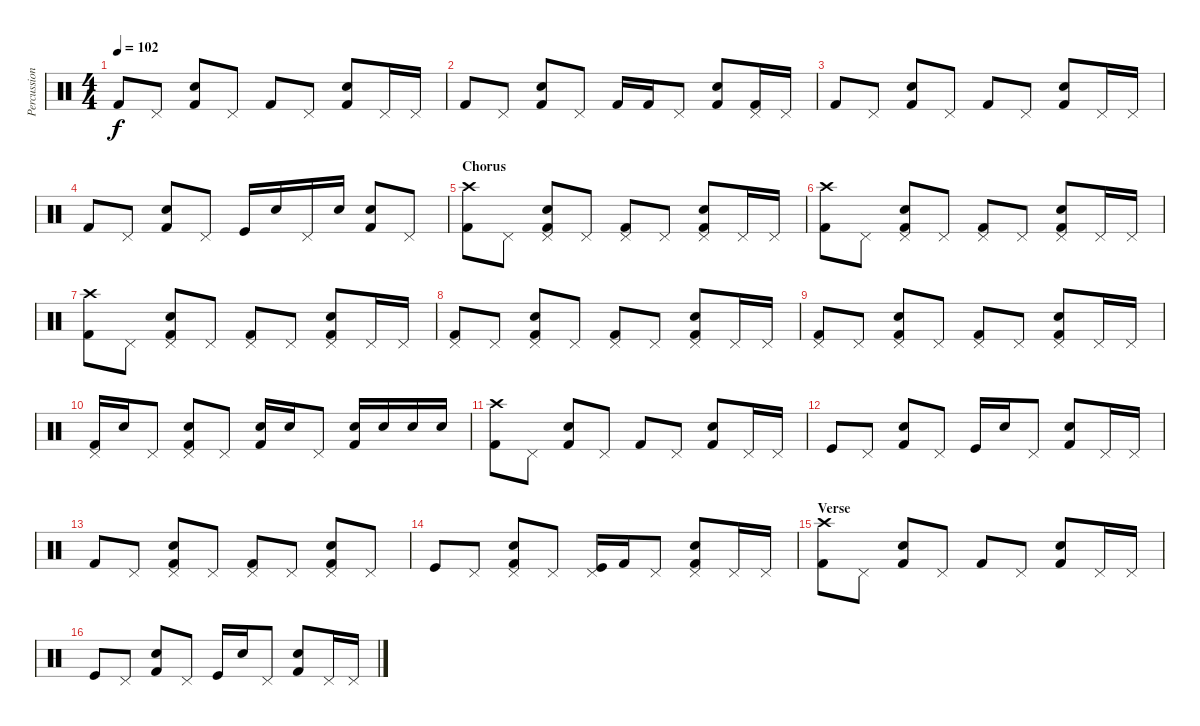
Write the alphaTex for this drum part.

\track ("Percussion" "Percussion") {instrument percussion}
\staff {score}
\articulation defaults
\ts (4 4)
\tempo 102
\clef neutral
\ks c "Kick (hit) 2".8{dy f} "Pedal Hi-Hat (hit)".8
("Snare (hit) 2" "Kick (hit) 2").8 "Pedal Hi-Hat (hit)".8 "Kick (hit) 2".8 "Pedal Hi-Hat (hit)".8 ("Snare (hit) 2" "Kick (hit) 2").8 "Pedal Hi-Hat (hit)".16 "Pedal Hi-Hat (hit)".16 |
"Kick (hit) 2".8 "Pedal Hi-Hat (hit)".8 ("Snare (hit) 2" "Kick (hit) 2").8 "Pedal Hi-Hat (hit)".8 "Kick (hit) 2".16 "Kick (hit) 2".16 "Pedal Hi-Hat (hit)".8 ("Snare (hit) 2" "Kick (hit) 2").8 ("Pedal Hi-Hat (hit)" "Kick (hit) 2").16 "Pedal Hi-Hat (hit)".16 |
"Kick (hit) 2".8 "Pedal Hi-Hat (hit)".8 ("Snare (hit) 2" "Kick (hit) 2").8 "Pedal Hi-Hat (hit)".8 "Kick (hit) 2".8 "Pedal Hi-Hat (hit)".8 ("Snare (hit) 2" "Kick (hit) 2").8 "Pedal Hi-Hat (hit)".16 "Pedal Hi-Hat (hit)".16 |
"Kick (hit) 2".8 "Pedal Hi-Hat (hit)".8 ("Snare (hit) 2" "Kick (hit) 2").8 "Pedal Hi-Hat (hit)".8 "Kick (hit)".16 "Snare (hit) 2".16 "Pedal Hi-Hat (hit)".16 "Snare (hit) 2".16 ("Snare (hit) 2" "Kick (hit) 2").8 "Pedal Hi-Hat (hit)".8 |
\section ("" "Chorus")
("Crash high (hit)" "Kick (hit) 2").8 "Pedal Hi-Hat (hit)".8 ("Pedal Hi-Hat (hit)" "Snare (hit) 2" "Kick (hit) 2").8 "Pedal Hi-Hat (hit)".8 ("Pedal Hi-Hat (hit)" "Kick (hit) 2").8 "Pedal Hi-Hat (hit)".8 ("Pedal Hi-Hat (hit)" "Snare (hit) 2" "Kick (hit) 2").8 "Pedal Hi-Hat (hit)".16 "Pedal Hi-Hat (hit)".16 |
("Crash high (hit)" "Kick (hit) 2").8 "Pedal Hi-Hat (hit)".8 ("Pedal Hi-Hat (hit)" "Snare (hit) 2" "Kick (hit) 2").8 "Pedal Hi-Hat (hit)".8 ("Pedal Hi-Hat (hit)" "Kick (hit) 2").8 "Pedal Hi-Hat (hit)".8 ("Pedal Hi-Hat (hit)" "Snare (hit) 2" "Kick (hit) 2").8 "Pedal Hi-Hat (hit)".16 "Pedal Hi-Hat (hit)".16 |
("Crash high (hit)" "Kick (hit) 2").8 "Pedal Hi-Hat (hit)".8 ("Pedal Hi-Hat (hit)" "Snare (hit) 2" "Kick (hit) 2").8 "Pedal Hi-Hat (hit)".8 ("Pedal Hi-Hat (hit)" "Kick (hit) 2").8 "Pedal Hi-Hat (hit)".8 ("Pedal Hi-Hat (hit)" "Snare (hit) 2" "Kick (hit) 2").8 "Pedal Hi-Hat (hit)".16 "Pedal Hi-Hat (hit)".16 |
("Pedal Hi-Hat (hit)" "Kick (hit) 2").8 "Pedal Hi-Hat (hit)".8 ("Pedal Hi-Hat (hit)" "Snare (hit) 2" "Kick (hit) 2").8 "Pedal Hi-Hat (hit)".8 ("Pedal Hi-Hat (hit)" "Kick (hit) 2").8 "Pedal Hi-Hat (hit)".8 ("Pedal Hi-Hat (hit)" "Snare (hit) 2" "Kick (hit) 2").8 "Pedal Hi-Hat (hit)".16 "Pedal Hi-Hat (hit)".16 |
("Pedal Hi-Hat (hit)" "Kick (hit) 2").8 "Pedal Hi-Hat (hit)".8 ("Pedal Hi-Hat (hit)" "Snare (hit) 2" "Kick (hit) 2").8 "Pedal Hi-Hat (hit)".8 ("Pedal Hi-Hat (hit)" "Kick (hit) 2").8 "Pedal Hi-Hat (hit)".8 ("Pedal Hi-Hat (hit)" "Snare (hit) 2" "Kick (hit) 2").8 "Pedal Hi-Hat (hit)".16 "Pedal Hi-Hat (hit)".16 |
("Pedal Hi-Hat (hit)" "Kick (hit) 2").16 "Snare (hit) 2".16 "Pedal Hi-Hat (hit)".8 ("Pedal Hi-Hat (hit)" "Snare (hit) 2" "Kick (hit) 2").8 "Pedal Hi-Hat (hit)".8 ("Snare (hit) 2" "Kick (hit) 2").16 "Snare (hit) 2".16 "Pedal Hi-Hat (hit)".8 ("Snare (hit) 2" "Kick (hit) 2").16 "Snare (hit) 2".16 "Snare (hit) 2".16 "Snare (hit) 2".16 |
("Crash high (hit)" "Kick (hit) 2").8 "Pedal Hi-Hat (hit)".8 ("Snare (hit) 2" "Kick (hit) 2").8 "Pedal Hi-Hat (hit)".8 "Kick (hit) 2".8 "Pedal Hi-Hat (hit)".8 ("Snare (hit) 2" "Kick (hit) 2").8 "Pedal Hi-Hat (hit)".16 "Pedal Hi-Hat (hit)".16 |
"Kick (hit)".8 "Pedal Hi-Hat (hit)".8 ("Snare (hit) 2" "Kick (hit) 2").8 "Pedal Hi-Hat (hit)".8 "Kick (hit)".16 "Snare (hit) 2".16 "Pedal Hi-Hat (hit)".8 ("Snare (hit) 2" "Kick (hit) 2").8 "Pedal Hi-Hat (hit)".16 "Pedal Hi-Hat (hit)".16 |
"Kick (hit) 2".8 "Pedal Hi-Hat (hit)".8 ("Pedal Hi-Hat (hit)" "Snare (hit) 2" "Kick (hit) 2").8 "Pedal Hi-Hat (hit)".8 ("Pedal Hi-Hat (hit)" "Kick (hit) 2").8 "Pedal Hi-Hat (hit)".8 ("Pedal Hi-Hat (hit)" "Snare (hit) 2" "Kick (hit) 2").8 "Pedal Hi-Hat (hit)".8 |
"Kick (hit)".8 "Pedal Hi-Hat (hit)".8 ("Pedal Hi-Hat (hit)" "Snare (hit) 2" "Kick (hit) 2").8 "Pedal Hi-Hat (hit)".8 ("Pedal Hi-Hat (hit)" "Kick (hit)").16 "Kick (hit) 2".16 "Pedal Hi-Hat (hit)".8 ("Pedal Hi-Hat (hit)" "Kick (hit) 2" "Snare (hit) 2").8 "Pedal Hi-Hat (hit)".16 "Pedal Hi-Hat (hit)".16 |
\section ("" "Verse")
("Crash high (hit)" "Kick (hit) 2").8 "Pedal Hi-Hat (hit)".8 ("Snare (hit) 2" "Kick (hit) 2").8 "Pedal Hi-Hat (hit)".8 "Kick (hit) 2".8 "Pedal Hi-Hat (hit)".8 ("Snare (hit) 2" "Kick (hit) 2").8 "Pedal Hi-Hat (hit)".16 "Pedal Hi-Hat (hit)".16 |
"Kick (hit)".8 "Pedal Hi-Hat (hit)".8 ("Snare (hit) 2" "Kick (hit) 2").8 "Pedal Hi-Hat (hit)".8 "Kick (hit)".16 "Snare (hit) 2".16 "Pedal Hi-Hat (hit)".8 ("Snare (hit) 2" "Kick (hit) 2").8 "Pedal Hi-Hat (hit)".16 "Pedal Hi-Hat (hit)".16
